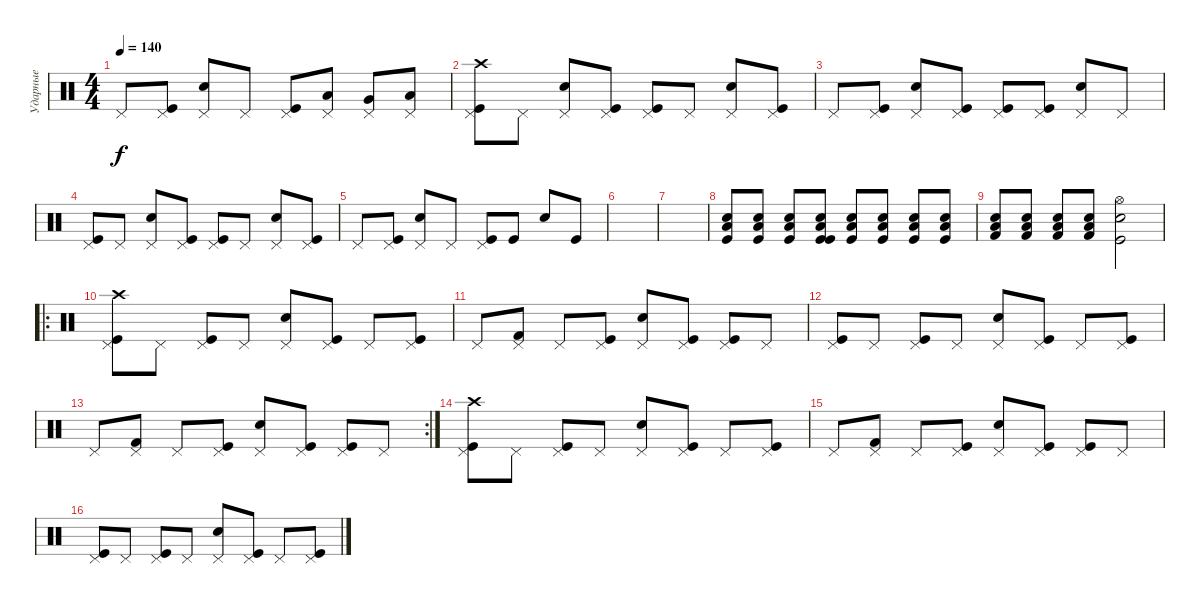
\track ("Ударные" "Ударные") {instrument percussion}
\staff {score}
\articulation defaults
\ts (4 4)
\tempo 140
\clef neutral
\ks c "Pedal Hi-Hat (hit)".8{dy f}
("Pedal Hi-Hat (hit)" "Kick (hit)").8 ("Pedal Hi-Hat (hit)" "Snare (hit) 2").8 "Pedal Hi-Hat (hit)".8 ("Pedal Hi-Hat (hit)" "Kick (hit)").8 ("Pedal Hi-Hat (hit)" "Low Tom (hit)").8 ("Pedal Hi-Hat (hit)" "Very Low Tom (hit)").8 ("Pedal Hi-Hat (hit)" "Low Floor Tom (hit)").8 |
("Pedal Hi-Hat (hit)" "Kick (hit)" "Crash high (hit)").8 "Pedal Hi-Hat (hit)".8 ("Pedal Hi-Hat (hit)" "Snare (hit) 2").8 ("Pedal Hi-Hat (hit)" "Kick (hit)").8 ("Pedal Hi-Hat (hit)" "Kick (hit)").8 "Pedal Hi-Hat (hit)".8 ("Pedal Hi-Hat (hit)" "Snare (hit) 2").8 ("Pedal Hi-Hat (hit)" "Kick (hit)").8 |
"Pedal Hi-Hat (hit)".8 ("Pedal Hi-Hat (hit)" "Kick (hit)").8 ("Pedal Hi-Hat (hit)" "Snare (hit) 2").8 ("Pedal Hi-Hat (hit)" "Kick (hit)").8 ("Pedal Hi-Hat (hit)" "Kick (hit)").8 ("Pedal Hi-Hat (hit)" "Kick (hit)").8 ("Pedal Hi-Hat (hit)" "Snare (hit) 2").8 "Pedal Hi-Hat (hit)".8 |
("Pedal Hi-Hat (hit)" "Kick (hit)").8 "Pedal Hi-Hat (hit)".8 ("Pedal Hi-Hat (hit)" "Snare (hit) 2").8 ("Pedal Hi-Hat (hit)" "Kick (hit)").8 ("Pedal Hi-Hat (hit)" "Kick (hit)").8 "Pedal Hi-Hat (hit)".8 ("Pedal Hi-Hat (hit)" "Snare (hit) 2").8 ("Pedal Hi-Hat (hit)" "Kick (hit)").8 |
"Pedal Hi-Hat (hit)".8 ("Pedal Hi-Hat (hit)" "Kick (hit)").8 ("Pedal Hi-Hat (hit)" "Snare (hit) 2").8 "Pedal Hi-Hat (hit)".8 ("Pedal Hi-Hat (hit)" "Kick (hit)").8 "Kick (hit)".8 "Snare (hit) 2".8 "Kick (hit)".8 |
|
|
("Low Floor Tom (hit)" "Kick (hit)" "Snare (hit) 2").8 ("Low Floor Tom (hit)" "Kick (hit)" "Snare (hit) 2").8 ("Low Floor Tom (hit)" "Kick (hit)" "Snare (hit) 2").8 ("Low Floor Tom (hit)" "Kick (hit)" "Kick (hit)" "Snare (hit) 2").8 ("Low Floor Tom (hit)" "Kick (hit)" "Snare (hit) 2").8 ("Low Floor Tom (hit)" "Kick (hit)" "Snare (hit) 2").8 ("Low Floor Tom (hit)" "Kick (hit)" "Snare (hit) 2").8 ("Low Floor Tom (hit)" "Kick (hit)" "Snare (hit) 2").8 |
("Low Floor Tom (hit)" "Kick (hit) 2" "Snare (hit) 2").8 ("Low Floor Tom (hit)" "Kick (hit) 2" "Snare (hit) 2").8 ("Low Floor Tom (hit)" "Kick (hit) 2" "Snare (hit) 2").8 ("Low Floor Tom (hit)" "Kick (hit) 2" "Snare (hit) 2").8 ("Kick (hit)" "Hi-Hat (open)" "Snare (hit) 2").2 |
\ro
("Pedal Hi-Hat (hit)" "Kick (hit)" "Crash high (hit)").8 "Pedal Hi-Hat (hit)".8 ("Pedal Hi-Hat (hit)" "Kick (hit)").8 "Pedal Hi-Hat (hit)".8 ("Pedal Hi-Hat (hit)" "Snare (hit) 2").8 ("Pedal Hi-Hat (hit)" "Kick (hit)").8 "Pedal Hi-Hat (hit)".8 ("Pedal Hi-Hat (hit)" "Kick (hit)").8 |
"Pedal Hi-Hat (hit)".8 ("Pedal Hi-Hat (hit)" "Kick (hit) 2").8 "Pedal Hi-Hat (hit)".8 ("Pedal Hi-Hat (hit)" "Kick (hit)").8 ("Snare (hit) 2" "Pedal Hi-Hat (hit)").8 ("Kick (hit)" "Pedal Hi-Hat (hit)").8 ("Kick (hit)" "Pedal Hi-Hat (hit)").8 "Pedal Hi-Hat (hit)".8 |
("Pedal Hi-Hat (hit)" "Kick (hit)").8 "Pedal Hi-Hat (hit)".8 ("Pedal Hi-Hat (hit)" "Kick (hit)").8 "Pedal Hi-Hat (hit)".8 ("Pedal Hi-Hat (hit)" "Snare (hit) 2").8 ("Pedal Hi-Hat (hit)" "Kick (hit)").8 "Pedal Hi-Hat (hit)".8 ("Pedal Hi-Hat (hit)" "Kick (hit)").8 |
\rc 2 "Pedal Hi-Hat (hit)".8
("Pedal Hi-Hat (hit)" "Kick (hit) 2").8 "Pedal Hi-Hat (hit)".8 ("Pedal Hi-Hat (hit)" "Kick (hit)").8 ("Snare (hit) 2" "Pedal Hi-Hat (hit)").8 ("Kick (hit)" "Pedal Hi-Hat (hit)").8 ("Kick (hit)" "Pedal Hi-Hat (hit)").8 "Pedal Hi-Hat (hit)".8 |
("Pedal Hi-Hat (hit)" "Kick (hit)" "Crash high (hit)").8 "Pedal Hi-Hat (hit)".8 ("Pedal Hi-Hat (hit)" "Kick (hit)").8 "Pedal Hi-Hat (hit)".8 ("Pedal Hi-Hat (hit)" "Snare (hit) 2").8 ("Pedal Hi-Hat (hit)" "Kick (hit)").8 "Pedal Hi-Hat (hit)".8 ("Pedal Hi-Hat (hit)" "Kick (hit)").8 |
"Pedal Hi-Hat (hit)".8 ("Pedal Hi-Hat (hit)" "Kick (hit) 2").8 "Pedal Hi-Hat (hit)".8 ("Pedal Hi-Hat (hit)" "Kick (hit)").8 ("Snare (hit) 2" "Pedal Hi-Hat (hit)").8 ("Kick (hit)" "Pedal Hi-Hat (hit)").8 ("Kick (hit)" "Pedal Hi-Hat (hit)").8 "Pedal Hi-Hat (hit)".8 |
("Pedal Hi-Hat (hit)" "Kick (hit)").8 "Pedal Hi-Hat (hit)".8 ("Pedal Hi-Hat (hit)" "Kick (hit)").8 "Pedal Hi-Hat (hit)".8 ("Pedal Hi-Hat (hit)" "Snare (hit) 2").8 ("Pedal Hi-Hat (hit)" "Kick (hit)").8 "Pedal Hi-Hat (hit)".8 ("Pedal Hi-Hat (hit)" "Kick (hit)").8
